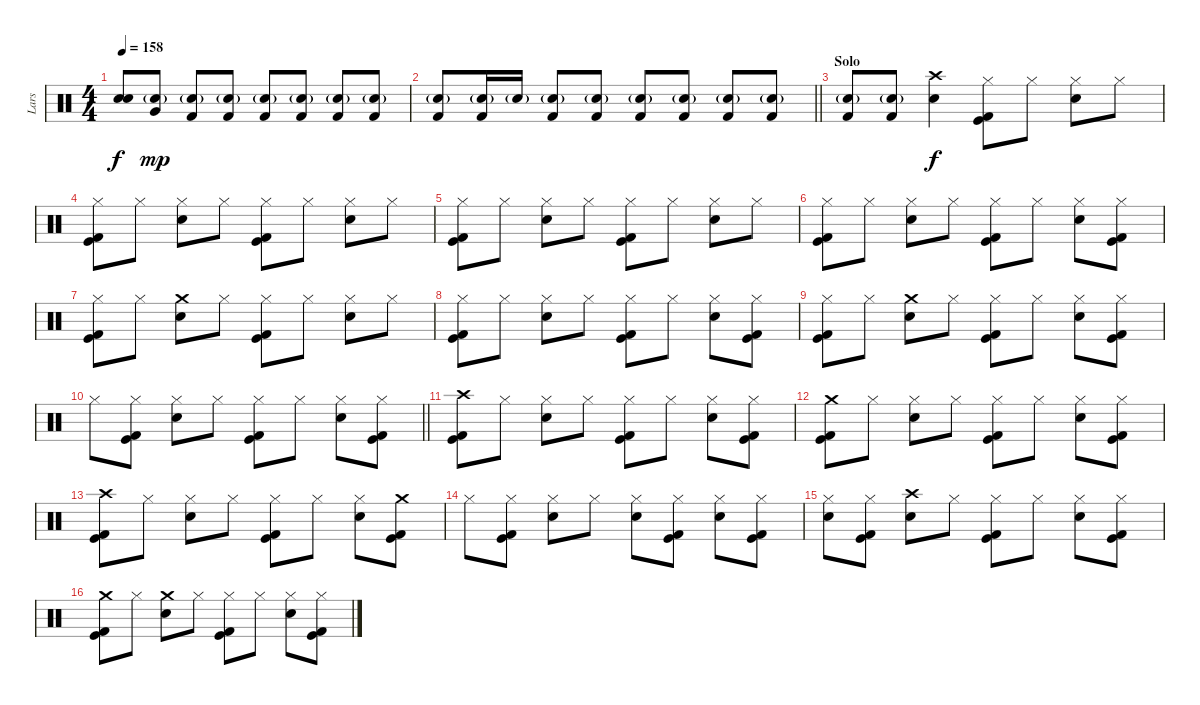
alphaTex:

\track ("Lars" "Lars") {instrument percussion}
\staff {score}
\articulation defaults
\ts (4 4)
\tempo 158
\clef neutral
\ks c
("Snare (hit)"{t} "Snare (hit)"{t}).8{dy f} ("Electric Snare (hit)"{g} "Very Low Tom (hit)").8{dy mp} ("Electric Snare (hit)"{g} "Kick (hit) 2").8 ("Electric Snare (hit)"{g} "Kick (hit) 2").8 ("Electric Snare (hit)"{g} "Kick (hit) 2").8 ("Electric Snare (hit)"{g} "Kick (hit) 2").8 ("Electric Snare (hit)"{g} "Kick (hit) 2").8 ("Electric Snare (hit)"{g} "Kick (hit) 2").8 |
\barLineRight lightlight
("Electric Snare (hit)"{g} "Kick (hit) 2").8 ("Electric Snare (hit)"{g} "Kick (hit) 2").16 "Electric Snare (hit)"{g}.16 ("Electric Snare (hit)"{g} "Kick (hit) 2").8 ("Electric Snare (hit)"{g} "Kick (hit) 2").8 ("Electric Snare (hit)"{g} "Kick (hit) 2").8 ("Electric Snare (hit)"{g} "Kick (hit) 2").8 ("Electric Snare (hit)"{g} "Kick (hit) 2").8 ("Electric Snare (hit)"{g} "Kick (hit) 2").8 |
\section ("" "Solo")
("Electric Snare (hit)"{g} "Kick (hit) 2").8 ("Electric Snare (hit)"{g} "Kick (hit) 2").8 ("Crash high (hit)" "Electric Snare (hit)").4{dy f} ("Hi-Hat (closed)" "Kick (hit)" "Kick (hit) 2").8 "Hi-Hat (closed)".8 ("Hi-Hat (closed)" "Electric Snare (hit)").8 "Hi-Hat (closed)".8 |
("Hi-Hat (closed)" "Kick (hit)" "Kick (hit) 2").8 "Hi-Hat (closed)".8 ("Hi-Hat (closed)" "Electric Snare (hit)").8 "Hi-Hat (closed)".8 ("Hi-Hat (closed)" "Kick (hit)" "Kick (hit) 2").8 "Hi-Hat (closed)".8 ("Hi-Hat (closed)" "Electric Snare (hit)").8 "Hi-Hat (closed)".8 |
("Hi-Hat (closed)" "Kick (hit)" "Kick (hit) 2").8 "Hi-Hat (closed)".8 ("Hi-Hat (closed)" "Electric Snare (hit)").8 "Hi-Hat (closed)".8 ("Hi-Hat (closed)" "Kick (hit)" "Kick (hit) 2").8 "Hi-Hat (closed)".8 ("Hi-Hat (closed)" "Electric Snare (hit)").8 "Hi-Hat (closed)".8 |
("Hi-Hat (closed)" "Kick (hit)" "Kick (hit) 2").8 "Hi-Hat (closed)".8 ("Hi-Hat (closed)" "Electric Snare (hit)").8 "Hi-Hat (closed)".8 ("Hi-Hat (closed)" "Kick (hit)" "Kick (hit) 2").8 "Hi-Hat (closed)".8 ("Hi-Hat (closed)" "Electric Snare (hit)").8 ("Hi-Hat (closed)" "Kick (hit)" "Kick (hit) 2").8 |
("Hi-Hat (closed)" "Kick (hit)" "Kick (hit) 2").8 "Hi-Hat (closed)".8 ("Crash medium (hit)" "Electric Snare (hit)").8 "Hi-Hat (closed)".8 ("Hi-Hat (closed)" "Kick (hit)" "Kick (hit) 2").8 "Hi-Hat (closed)".8 ("Hi-Hat (closed)" "Electric Snare (hit)").8 "Hi-Hat (closed)".8 |
("Hi-Hat (closed)" "Kick (hit)" "Kick (hit) 2").8 "Hi-Hat (closed)".8 ("Hi-Hat (closed)" "Electric Snare (hit)").8 "Hi-Hat (closed)".8 ("Hi-Hat (closed)" "Kick (hit)" "Kick (hit) 2").8 "Hi-Hat (closed)".8 ("Hi-Hat (closed)" "Electric Snare (hit)").8 ("Hi-Hat (closed)" "Kick (hit)" "Kick (hit) 2").8 |
("Hi-Hat (closed)" "Kick (hit)" "Kick (hit) 2").8 "Hi-Hat (closed)".8 ("Crash medium (hit)" "Electric Snare (hit)").8 "Hi-Hat (closed)".8 ("Hi-Hat (closed)" "Kick (hit)" "Kick (hit) 2").8 "Hi-Hat (closed)".8 ("Hi-Hat (closed)" "Electric Snare (hit)").8 ("Hi-Hat (closed)" "Kick (hit)" "Kick (hit) 2").8 |
\barLineRight lightlight "Hi-Hat (closed)".8
("Hi-Hat (closed)" "Kick (hit)" "Kick (hit) 2").8 ("Hi-Hat (closed)" "Electric Snare (hit)").8 "Hi-Hat (closed)".8 ("Hi-Hat (closed)" "Kick (hit)" "Kick (hit) 2").8 "Hi-Hat (closed)".8 ("Hi-Hat (closed)" "Electric Snare (hit)").8 ("Hi-Hat (closed)" "Kick (hit)" "Kick (hit) 2").8 |
\section ("" "")
("Crash high (hit)" "Kick (hit)" "Kick (hit) 2").8 "Hi-Hat (closed)".8 ("Hi-Hat (closed)" "Electric Snare (hit)").8 "Hi-Hat (closed)".8 ("Hi-Hat (closed)" "Kick (hit)" "Kick (hit) 2").8 "Hi-Hat (closed)".8 ("Hi-Hat (closed)" "Electric Snare (hit)").8 ("Hi-Hat (closed)" "Kick (hit)" "Kick (hit) 2").8 |
("Crash medium (hit)" "Kick (hit)" "Kick (hit) 2").8 "Hi-Hat (closed)".8 ("Hi-Hat (closed)" "Electric Snare (hit)").8 "Hi-Hat (closed)".8 ("Hi-Hat (closed)" "Kick (hit)" "Kick (hit) 2").8 "Hi-Hat (closed)".8 ("Hi-Hat (closed)" "Electric Snare (hit)").8 ("Hi-Hat (closed)" "Kick (hit)" "Kick (hit) 2").8 |
("Crash high (hit)" "Kick (hit)" "Kick (hit) 2").8 "Hi-Hat (closed)".8 ("Hi-Hat (closed)" "Electric Snare (hit)").8 "Hi-Hat (closed)".8 ("Hi-Hat (closed)" "Kick (hit)" "Kick (hit) 2").8 "Hi-Hat (closed)".8 ("Hi-Hat (closed)" "Electric Snare (hit)").8 ("Crash medium (hit)" "Kick (hit)" "Kick (hit) 2").8 |
"Hi-Hat (closed)".8 ("Hi-Hat (closed)" "Kick (hit)" "Kick (hit) 2").8 ("Hi-Hat (closed)" "Electric Snare (hit)").8 "Hi-Hat (closed)".8 ("Hi-Hat (closed)" "Electric Snare (hit)").8 ("Hi-Hat (closed)" "Kick (hit)" "Kick (hit) 2").8 ("Hi-Hat (closed)" "Electric Snare (hit)").8 ("Hi-Hat (closed)" "Kick (hit)" "Kick (hit) 2").8 |
("Hi-Hat (closed)" "Electric Snare (hit)").8 ("Hi-Hat (closed)" "Kick (hit)" "Kick (hit) 2").8 ("Crash high (hit)" "Electric Snare (hit)").8 "Hi-Hat (closed)".8 ("Hi-Hat (closed)" "Kick (hit)" "Kick (hit) 2").8 "Hi-Hat (closed)".8 ("Hi-Hat (closed)" "Electric Snare (hit)").8 ("Hi-Hat (closed)" "Kick (hit)" "Kick (hit) 2").8 |
("Crash medium (hit)" "Kick (hit)" "Kick (hit) 2").8 "Hi-Hat (closed)".8 ("Crash medium (hit)" "Electric Snare (hit)").8 "Hi-Hat (closed)".8 ("Hi-Hat (closed)" "Kick (hit)" "Kick (hit) 2").8 "Hi-Hat (closed)".8 ("Hi-Hat (closed)" "Electric Snare (hit)").8 ("Hi-Hat (closed)" "Kick (hit)" "Kick (hit) 2").8
